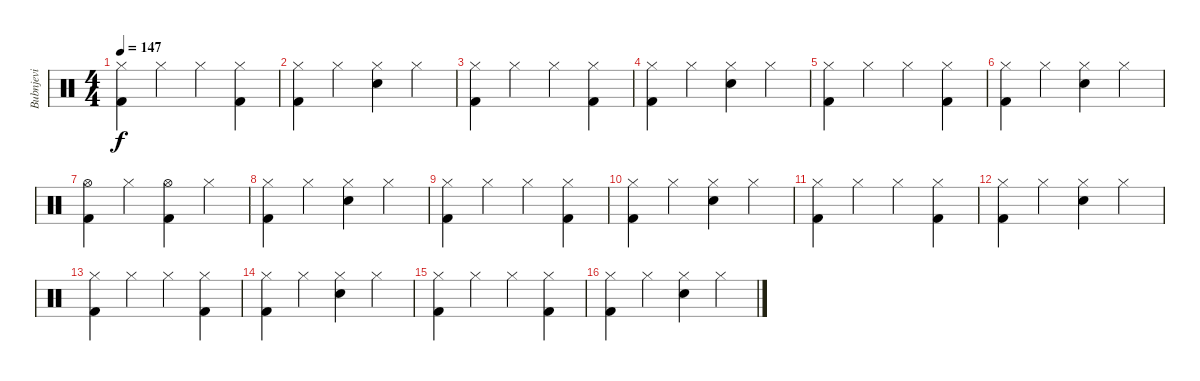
\track ("Bubnjevi" "Bubnjevi") {instrument percussion}
\staff {score}
\articulation defaults
\ts (4 4)
\tempo 147
\clef neutral
\ks c
("Hi-Hat (closed)" "Kick (hit) 2").4{dy f} "Hi-Hat (closed)".4 "Hi-Hat (closed)".4 ("Hi-Hat (closed)" "Kick (hit) 2").4 |
("Hi-Hat (closed)" "Kick (hit) 2").4 "Hi-Hat (closed)".4 ("Hi-Hat (closed)" "Electric Snare (hit)").4 "Hi-Hat (closed)".4 |
("Hi-Hat (closed)" "Kick (hit) 2").4 "Hi-Hat (closed)".4 "Hi-Hat (closed)".4 ("Hi-Hat (closed)" "Kick (hit) 2").4 |
("Hi-Hat (closed)" "Kick (hit) 2").4 "Hi-Hat (closed)".4 ("Hi-Hat (closed)" "Electric Snare (hit)").4 "Hi-Hat (closed)".4 |
("Hi-Hat (closed)" "Kick (hit) 2").4 "Hi-Hat (closed)".4 "Hi-Hat (closed)".4 ("Hi-Hat (closed)" "Kick (hit) 2").4 |
("Hi-Hat (closed)" "Kick (hit) 2").4 "Hi-Hat (closed)".4 ("Hi-Hat (closed)" "Electric Snare (hit)").4 "Hi-Hat (closed)".4 |
("Hi-Hat (open)" "Kick (hit) 2").4 "Hi-Hat (closed)".4 ("Hi-Hat (open)" "Kick (hit) 2").4 "Hi-Hat (closed)".4 |
("Hi-Hat (closed)" "Kick (hit) 2").4 "Hi-Hat (closed)".4 ("Hi-Hat (closed)" "Electric Snare (hit)").4 "Hi-Hat (closed)".4 |
("Hi-Hat (closed)" "Kick (hit) 2").4 "Hi-Hat (closed)".4 "Hi-Hat (closed)".4 ("Hi-Hat (closed)" "Kick (hit) 2").4 |
("Hi-Hat (closed)" "Kick (hit) 2").4 "Hi-Hat (closed)".4 ("Hi-Hat (closed)" "Electric Snare (hit)").4 "Hi-Hat (closed)".4 |
("Hi-Hat (closed)" "Kick (hit) 2").4 "Hi-Hat (closed)".4 "Hi-Hat (closed)".4 ("Hi-Hat (closed)" "Kick (hit) 2").4 |
("Hi-Hat (closed)" "Kick (hit) 2").4 "Hi-Hat (closed)".4 ("Hi-Hat (closed)" "Electric Snare (hit)").4 "Hi-Hat (closed)".4 |
("Hi-Hat (closed)" "Kick (hit) 2").4 "Hi-Hat (closed)".4 "Hi-Hat (closed)".4 ("Hi-Hat (closed)" "Kick (hit) 2").4 |
("Hi-Hat (closed)" "Kick (hit) 2").4 "Hi-Hat (closed)".4 ("Hi-Hat (closed)" "Electric Snare (hit)").4 "Hi-Hat (closed)".4 |
("Hi-Hat (closed)" "Kick (hit) 2").4 "Hi-Hat (closed)".4 "Hi-Hat (closed)".4 ("Hi-Hat (closed)" "Kick (hit) 2").4 |
("Hi-Hat (closed)" "Kick (hit) 2").4 "Hi-Hat (closed)".4 ("Hi-Hat (closed)" "Electric Snare (hit)").4 "Hi-Hat (closed)".4
